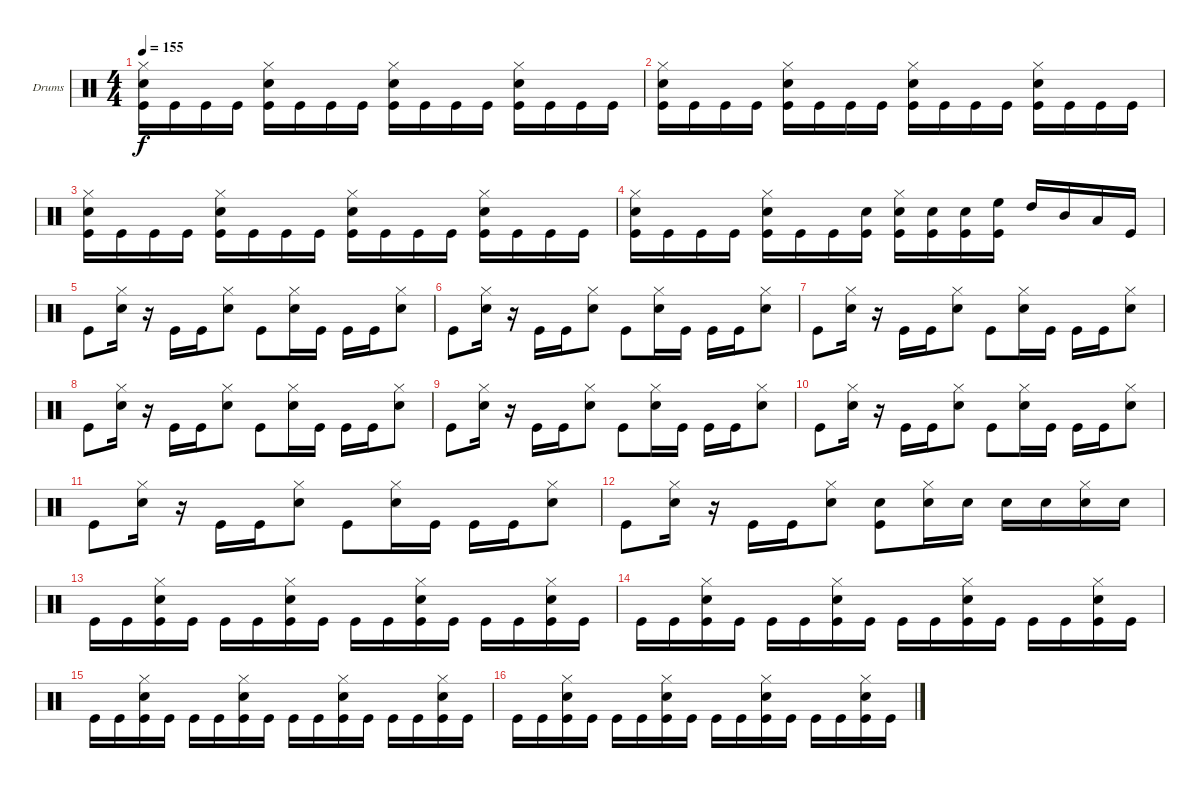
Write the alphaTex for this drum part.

\defaultSystemsLayout 4
\bracketExtendMode groupsimilarinstruments
\firstSystemTrackNameOrientation horizontal
\otherSystemsTrackNameOrientation horizontal
\track ("Drumkit" "Drums") {instrument percussion}
\staff {score}
\articulation defaults
\ts (4 4)
\tempo 155
\clef neutral
\ks c
("Kick (hit)" "Snare (hit) 2" "Hi-Hat (closed)").16{dy f} "Kick (hit)".16 "Kick (hit)".16 "Kick (hit)".16 ("Kick (hit)" "Snare (hit) 2" "Hi-Hat (closed)").16 "Kick (hit)".16 "Kick (hit)".16 "Kick (hit)".16 ("Kick (hit)" "Snare (hit) 2" "Hi-Hat (closed)").16 "Kick (hit)".16 "Kick (hit)".16 "Kick (hit)".16 ("Kick (hit)" "Snare (hit) 2" "Hi-Hat (closed)").16 "Kick (hit)".16 "Kick (hit)".16 "Kick (hit)".16 |
("Kick (hit)" "Snare (hit) 2" "Hi-Hat (closed)").16 "Kick (hit)".16 "Kick (hit)".16 "Kick (hit)".16 ("Kick (hit)" "Snare (hit) 2" "Hi-Hat (closed)").16 "Kick (hit)".16 "Kick (hit)".16 "Kick (hit)".16 ("Kick (hit)" "Snare (hit) 2" "Hi-Hat (closed)").16 "Kick (hit)".16 "Kick (hit)".16 "Kick (hit)".16 ("Kick (hit)" "Snare (hit) 2" "Hi-Hat (closed)").16 "Kick (hit)".16 "Kick (hit)".16 "Kick (hit)".16 |
("Kick (hit)" "Snare (hit) 2" "Hi-Hat (closed)").16 "Kick (hit)".16 "Kick (hit)".16 "Kick (hit)".16 ("Kick (hit)" "Snare (hit) 2" "Hi-Hat (closed)").16 "Kick (hit)".16 "Kick (hit)".16 "Kick (hit)".16 ("Kick (hit)" "Snare (hit) 2" "Hi-Hat (closed)").16 "Kick (hit)".16 "Kick (hit)".16 "Kick (hit)".16 ("Kick (hit)" "Snare (hit) 2" "Hi-Hat (closed)").16 "Kick (hit)".16 "Kick (hit)".16 "Kick (hit)".16 |
("Kick (hit)" "Snare (hit) 2" "Hi-Hat (closed)").16 "Kick (hit)".16 "Kick (hit)".16 "Kick (hit)".16 ("Kick (hit)" "Snare (hit) 2" "Hi-Hat (closed)").16 "Kick (hit)".16 "Kick (hit)".16 ("Kick (hit)" "Snare (hit) 2").16 ("Kick (hit)" "Snare (hit) 2" "Hi-Hat (closed)").16 ("Kick (hit)" "Snare (hit) 2").16 ("Kick (hit)" "Snare (hit) 2").16 ("Kick (hit)" "High Floor Tom (hit)").16 "High Tom (hit)".16 "Mid Tom (hit)".16 "Low Tom (hit)".16 "Kick (hit)".16 |
"Kick (hit)".8 ("Snare (hit) 2" "Hi-Hat (closed)").16 r.16 "Kick (hit)".16 "Kick (hit)".16 ("Snare (hit) 2" "Hi-Hat (closed)").8 "Kick (hit)".8 ("Snare (hit) 2" "Hi-Hat (closed)").16 "Kick (hit)".16 "Kick (hit)".16 "Kick (hit)".16 ("Snare (hit) 2" "Hi-Hat (closed)").8 |
"Kick (hit)".8 ("Snare (hit) 2" "Hi-Hat (closed)").16 r.16 "Kick (hit)".16 "Kick (hit)".16 ("Snare (hit) 2" "Hi-Hat (closed)").8 "Kick (hit)".8 ("Snare (hit) 2" "Hi-Hat (closed)").16 "Kick (hit)".16 "Kick (hit)".16 "Kick (hit)".16 ("Snare (hit) 2" "Hi-Hat (closed)").8 |
"Kick (hit)".8 ("Snare (hit) 2" "Hi-Hat (closed)").16 r.16 "Kick (hit)".16 "Kick (hit)".16 ("Snare (hit) 2" "Hi-Hat (closed)").8 "Kick (hit)".8 ("Snare (hit) 2" "Hi-Hat (closed)").16 "Kick (hit)".16 "Kick (hit)".16 "Kick (hit)".16 ("Snare (hit) 2" "Hi-Hat (closed)").8 |
"Kick (hit)".8 ("Snare (hit) 2" "Hi-Hat (closed)").16 r.16 "Kick (hit)".16 "Kick (hit)".16 ("Snare (hit) 2" "Hi-Hat (closed)").8 "Kick (hit)".8 ("Snare (hit) 2" "Hi-Hat (closed)").16 "Kick (hit)".16 "Kick (hit)".16 "Kick (hit)".16 ("Snare (hit) 2" "Hi-Hat (closed)").8 |
"Kick (hit)".8 ("Snare (hit) 2" "Hi-Hat (closed)").16 r.16 "Kick (hit)".16 "Kick (hit)".16 ("Snare (hit) 2" "Hi-Hat (closed)").8 "Kick (hit)".8 ("Snare (hit) 2" "Hi-Hat (closed)").16 "Kick (hit)".16 "Kick (hit)".16 "Kick (hit)".16 ("Snare (hit) 2" "Hi-Hat (closed)").8 |
"Kick (hit)".8 ("Snare (hit) 2" "Hi-Hat (closed)").16 r.16 "Kick (hit)".16 "Kick (hit)".16 ("Snare (hit) 2" "Hi-Hat (closed)").8 "Kick (hit)".8 ("Snare (hit) 2" "Hi-Hat (closed)").16 "Kick (hit)".16 "Kick (hit)".16 "Kick (hit)".16 ("Snare (hit) 2" "Hi-Hat (closed)").8 |
"Kick (hit)".8 ("Snare (hit) 2" "Hi-Hat (closed)").16 r.16 "Kick (hit)".16 "Kick (hit)".16 ("Snare (hit) 2" "Hi-Hat (closed)").8 "Kick (hit)".8 ("Snare (hit) 2" "Hi-Hat (closed)").16 "Kick (hit)".16 "Kick (hit)".16 "Kick (hit)".16 ("Snare (hit) 2" "Hi-Hat (closed)").8 |
"Kick (hit)".8 ("Snare (hit) 2" "Hi-Hat (closed)").16 r.16 "Kick (hit)".16 "Kick (hit)".16 ("Snare (hit) 2" "Hi-Hat (closed)").8 ("Kick (hit)" "Snare (hit) 2").8 ("Snare (hit) 2" "Hi-Hat (closed)").16 "Snare (hit) 2".16 "Snare (hit) 2".16 "Snare (hit) 2".16 ("Snare (hit) 2" "Hi-Hat (closed)").16 "Snare (hit) 2".16 |
"Kick (hit)".16 "Kick (hit)".16 ("Kick (hit)" "Snare (hit) 2" "Hi-Hat (closed)").16 "Kick (hit)".16 "Kick (hit)".16 "Kick (hit)".16 ("Kick (hit)" "Snare (hit) 2" "Hi-Hat (closed)").16 "Kick (hit)".16 "Kick (hit)".16 "Kick (hit)".16 ("Kick (hit)" "Snare (hit) 2" "Hi-Hat (closed)").16 "Kick (hit)".16 "Kick (hit)".16 "Kick (hit)".16 ("Kick (hit)" "Snare (hit) 2" "Hi-Hat (closed)").16 "Kick (hit)".16 |
"Kick (hit)".16 "Kick (hit)".16 ("Kick (hit)" "Snare (hit) 2" "Hi-Hat (closed)").16 "Kick (hit)".16 "Kick (hit)".16 "Kick (hit)".16 ("Kick (hit)" "Snare (hit) 2" "Hi-Hat (closed)").16 "Kick (hit)".16 "Kick (hit)".16 "Kick (hit)".16 ("Kick (hit)" "Snare (hit) 2" "Hi-Hat (closed)").16 "Kick (hit)".16 "Kick (hit)".16 "Kick (hit)".16 ("Kick (hit)" "Snare (hit) 2" "Hi-Hat (closed)").16 "Kick (hit)".16 |
"Kick (hit)".16 "Kick (hit)".16 ("Kick (hit)" "Snare (hit) 2" "Hi-Hat (closed)").16 "Kick (hit)".16 "Kick (hit)".16 "Kick (hit)".16 ("Kick (hit)" "Snare (hit) 2" "Hi-Hat (closed)").16 "Kick (hit)".16 "Kick (hit)".16 "Kick (hit)".16 ("Kick (hit)" "Snare (hit) 2" "Hi-Hat (closed)").16 "Kick (hit)".16 "Kick (hit)".16 "Kick (hit)".16 ("Kick (hit)" "Snare (hit) 2" "Hi-Hat (closed)").16 "Kick (hit)".16 |
"Kick (hit)".16 "Kick (hit)".16 ("Kick (hit)" "Snare (hit) 2" "Hi-Hat (closed)").16 "Kick (hit)".16 "Kick (hit)".16 "Kick (hit)".16 ("Kick (hit)" "Snare (hit) 2" "Hi-Hat (closed)").16 "Kick (hit)".16 "Kick (hit)".16 "Kick (hit)".16 ("Kick (hit)" "Snare (hit) 2" "Hi-Hat (closed)").16 "Kick (hit)".16 "Kick (hit)".16 "Kick (hit)".16 ("Kick (hit)" "Snare (hit) 2" "Hi-Hat (closed)").16 "Kick (hit)".16
